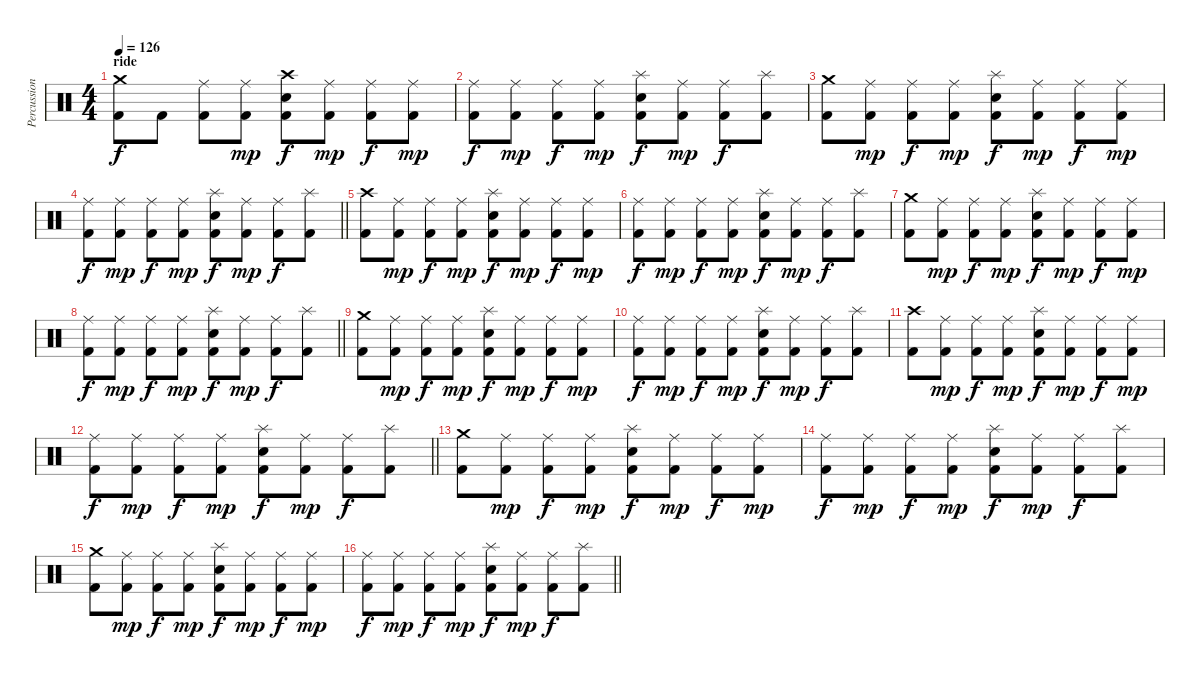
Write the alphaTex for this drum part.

\track ("Percussion" "Percussion") {instrument percussion}
\staff {score}
\articulation defaults
\ts (4 4)
\section ("" "ride")
\tempo 126
\clef neutral
\ks c
("Crash medium (hit)" "Kick (hit) 2").8{dy f} "Kick (hit) 2".8 ("Ride (middle)" "Kick (hit) 2").8 ("Ride (middle)" "Kick (hit) 2").8{dy mp} ("Crash high (hit)" "Electric Snare (hit)" "Kick (hit) 2").8{dy f} ("Ride (middle)" "Kick (hit) 2").8{dy mp} ("Ride (middle)" "Kick (hit) 2").8{dy f} ("Ride (middle)" "Kick (hit) 2").8{dy mp} |
("Ride (middle)" "Kick (hit) 2").8{dy f} ("Ride (middle)" "Kick (hit) 2").8{dy mp} ("Ride (middle)" "Kick (hit) 2").8{dy f} ("Ride (middle)" "Kick (hit) 2").8{dy mp} ("Splash (hit)" "Electric Snare (hit)" "Kick (hit) 2").8{dy f} ("Ride (middle)" "Kick (hit) 2").8{dy mp} ("Ride (middle)" "Kick (hit) 2").8{dy f} ("Splash (hit)" "Kick (hit) 2").8 |
("Crash medium (hit)" "Kick (hit) 2").8 ("Ride (middle)" "Kick (hit) 2").8{dy mp} ("Ride (middle)" "Kick (hit) 2").8{dy f} ("Ride (middle)" "Kick (hit) 2").8{dy mp} ("Splash (hit)" "Electric Snare (hit)" "Kick (hit) 2").8{dy f} ("Ride (middle)" "Kick (hit) 2").8{dy mp} ("Ride (middle)" "Kick (hit) 2").8{dy f} ("Ride (middle)" "Kick (hit) 2").8{dy mp} |
\barLineRight lightlight
("Ride (middle)" "Kick (hit) 2").8{dy f} ("Ride (middle)" "Kick (hit) 2").8{dy mp} ("Ride (middle)" "Kick (hit) 2").8{dy f} ("Ride (middle)" "Kick (hit) 2").8{dy mp} ("Splash (hit)" "Electric Snare (hit)" "Kick (hit) 2").8{dy f} ("Ride (middle)" "Kick (hit) 2").8{dy mp} ("Ride (middle)" "Kick (hit) 2").8{dy f} ("Splash (hit)" "Kick (hit) 2").8 |
("Crash high (hit)" "Kick (hit) 2").8 ("Ride (middle)" "Kick (hit) 2").8{dy mp} ("Ride (middle)" "Kick (hit) 2").8{dy f} ("Ride (middle)" "Kick (hit) 2").8{dy mp} ("Splash (hit)" "Electric Snare (hit)" "Kick (hit) 2").8{dy f} ("Ride (middle)" "Kick (hit) 2").8{dy mp} ("Ride (middle)" "Kick (hit) 2").8{dy f} ("Ride (middle)" "Kick (hit) 2").8{dy mp} |
("Ride (middle)" "Kick (hit) 2").8{dy f} ("Ride (middle)" "Kick (hit) 2").8{dy mp} ("Ride (middle)" "Kick (hit) 2").8{dy f} ("Ride (middle)" "Kick (hit) 2").8{dy mp} ("Splash (hit)" "Electric Snare (hit)" "Kick (hit) 2").8{dy f} ("Ride (middle)" "Kick (hit) 2").8{dy mp} ("Ride (middle)" "Kick (hit) 2").8{dy f} ("Splash (hit)" "Kick (hit) 2").8 |
("Crash medium (hit)" "Kick (hit) 2").8 ("Ride (middle)" "Kick (hit) 2").8{dy mp} ("Ride (middle)" "Kick (hit) 2").8{dy f} ("Ride (middle)" "Kick (hit) 2").8{dy mp} ("Splash (hit)" "Electric Snare (hit)" "Kick (hit) 2").8{dy f} ("Ride (middle)" "Kick (hit) 2").8{dy mp} ("Ride (middle)" "Kick (hit) 2").8{dy f} ("Ride (middle)" "Kick (hit) 2").8{dy mp} |
\barLineRight lightlight
("Ride (middle)" "Kick (hit) 2").8{dy f} ("Ride (middle)" "Kick (hit) 2").8{dy mp} ("Ride (middle)" "Kick (hit) 2").8{dy f} ("Ride (middle)" "Kick (hit) 2").8{dy mp} ("Splash (hit)" "Electric Snare (hit)" "Kick (hit) 2").8{dy f} ("Ride (middle)" "Kick (hit) 2").8{dy mp} ("Ride (middle)" "Kick (hit) 2").8{dy f} ("Splash (hit)" "Kick (hit) 2").8 |
("Crash medium (hit)" "Kick (hit) 2").8 ("Ride (middle)" "Kick (hit) 2").8{dy mp} ("Ride (middle)" "Kick (hit) 2").8{dy f} ("Ride (middle)" "Kick (hit) 2").8{dy mp} ("Splash (hit)" "Electric Snare (hit)" "Kick (hit) 2").8{dy f} ("Ride (middle)" "Kick (hit) 2").8{dy mp} ("Ride (middle)" "Kick (hit) 2").8{dy f} ("Ride (middle)" "Kick (hit) 2").8{dy mp} |
("Ride (middle)" "Kick (hit) 2").8{dy f} ("Ride (middle)" "Kick (hit) 2").8{dy mp} ("Ride (middle)" "Kick (hit) 2").8{dy f} ("Ride (middle)" "Kick (hit) 2").8{dy mp} ("Splash (hit)" "Electric Snare (hit)" "Kick (hit) 2").8{dy f} ("Ride (middle)" "Kick (hit) 2").8{dy mp} ("Ride (middle)" "Kick (hit) 2").8{dy f} ("Splash (hit)" "Kick (hit) 2").8 |
("Crash high (hit)" "Kick (hit) 2").8 ("Ride (middle)" "Kick (hit) 2").8{dy mp} ("Ride (middle)" "Kick (hit) 2").8{dy f} ("Ride (middle)" "Kick (hit) 2").8{dy mp} ("Splash (hit)" "Electric Snare (hit)" "Kick (hit) 2").8{dy f} ("Ride (middle)" "Kick (hit) 2").8{dy mp} ("Ride (middle)" "Kick (hit) 2").8{dy f} ("Ride (middle)" "Kick (hit) 2").8{dy mp} |
\barLineRight lightlight
("Ride (middle)" "Kick (hit) 2").8{dy f} ("Ride (middle)" "Kick (hit) 2").8{dy mp} ("Ride (middle)" "Kick (hit) 2").8{dy f} ("Ride (middle)" "Kick (hit) 2").8{dy mp} ("Splash (hit)" "Electric Snare (hit)" "Kick (hit) 2").8{dy f} ("Ride (middle)" "Kick (hit) 2").8{dy mp} ("Ride (middle)" "Kick (hit) 2").8{dy f} ("Splash (hit)" "Kick (hit) 2").8 |
("Crash medium (hit)" "Kick (hit) 2").8 ("Ride (middle)" "Kick (hit) 2").8{dy mp} ("Ride (middle)" "Kick (hit) 2").8{dy f} ("Ride (middle)" "Kick (hit) 2").8{dy mp} ("Splash (hit)" "Electric Snare (hit)" "Kick (hit) 2").8{dy f} ("Ride (middle)" "Kick (hit) 2").8{dy mp} ("Ride (middle)" "Kick (hit) 2").8{dy f} ("Ride (middle)" "Kick (hit) 2").8{dy mp} |
("Ride (middle)" "Kick (hit) 2").8{dy f} ("Ride (middle)" "Kick (hit) 2").8{dy mp} ("Ride (middle)" "Kick (hit) 2").8{dy f} ("Ride (middle)" "Kick (hit) 2").8{dy mp} ("Splash (hit)" "Electric Snare (hit)" "Kick (hit) 2").8{dy f} ("Ride (middle)" "Kick (hit) 2").8{dy mp} ("Ride (middle)" "Kick (hit) 2").8{dy f} ("Splash (hit)" "Kick (hit) 2").8 |
("Crash medium (hit)" "Kick (hit) 2").8 ("Ride (middle)" "Kick (hit) 2").8{dy mp} ("Ride (middle)" "Kick (hit) 2").8{dy f} ("Ride (middle)" "Kick (hit) 2").8{dy mp} ("Splash (hit)" "Electric Snare (hit)" "Kick (hit) 2").8{dy f} ("Ride (middle)" "Kick (hit) 2").8{dy mp} ("Ride (middle)" "Kick (hit) 2").8{dy f} ("Ride (middle)" "Kick (hit) 2").8{dy mp} |
\barLineRight lightlight
("Ride (middle)" "Kick (hit) 2").8{dy f} ("Ride (middle)" "Kick (hit) 2").8{dy mp} ("Ride (middle)" "Kick (hit) 2").8{dy f} ("Ride (middle)" "Kick (hit) 2").8{dy mp} ("Splash (hit)" "Electric Snare (hit)" "Kick (hit) 2").8{dy f} ("Ride (middle)" "Kick (hit) 2").8{dy mp} ("Ride (middle)" "Kick (hit) 2").8{dy f} ("Splash (hit)" "Kick (hit) 2").8
